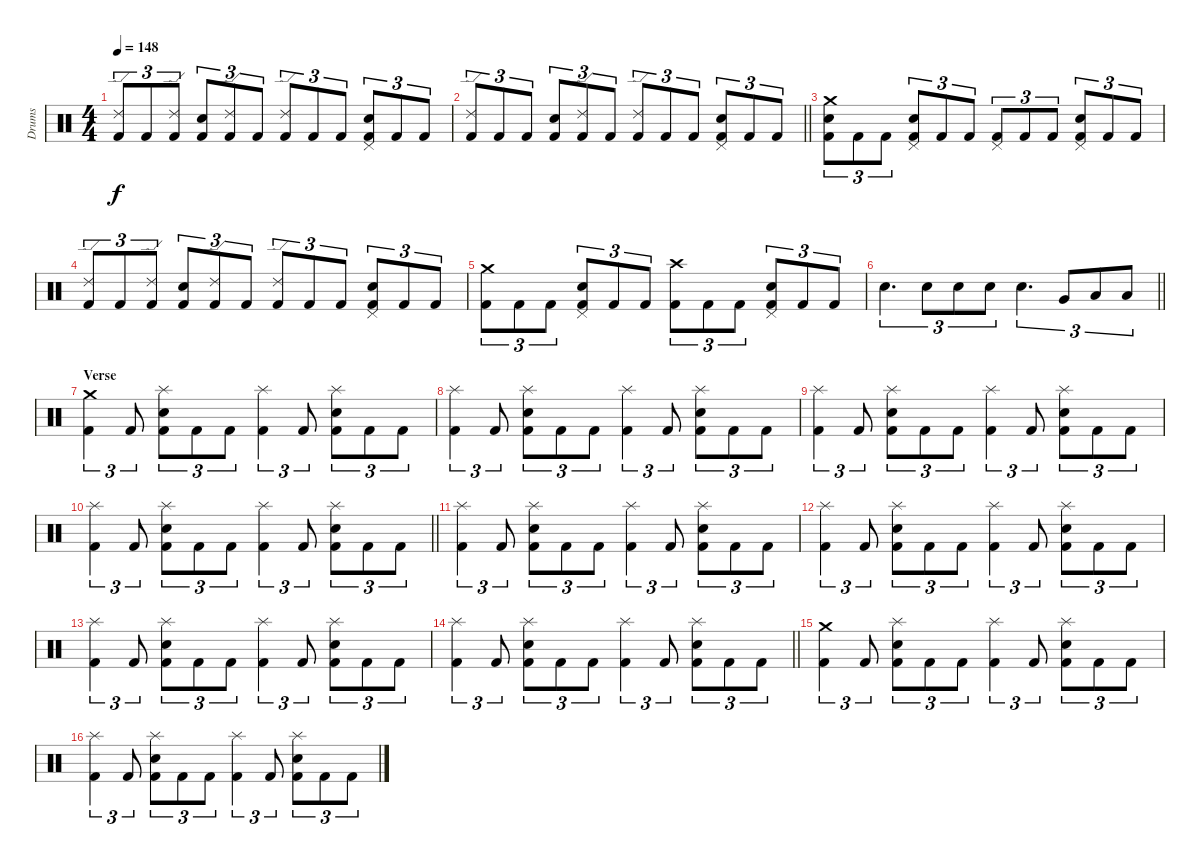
\track ("Drums" "Drums") {instrument percussion}
\staff {score}
\articulation defaults
\ts (4 4)
\tempo 148
\clef neutral
\ks c
("Kick (hit) 2" "Ride (edge) 2").8{tu (3 2) dy f} "Kick (hit) 2".8{tu (3 2)} ("Kick (hit) 2" "Ride (edge) 2").8{tu (3 2)} ("Kick (hit) 2" "Snare (hit) 2").8{tu (3 2)} ("Kick (hit) 2" "Ride (edge) 2").8{tu (3 2)} "Kick (hit) 2".8{tu (3 2)} ("Kick (hit) 2" "Ride (edge) 2").8{tu (3 2)} "Kick (hit) 2".8{tu (3 2)} "Kick (hit) 2".8{tu (3 2)} ("Kick (hit) 2" "Snare (hit) 2" "Pedal Hi-Hat (hit)").8{tu (3 2)} "Kick (hit) 2".8{tu (3 2)} "Kick (hit) 2".8{tu (3 2)} |
\barLineRight lightlight
("Kick (hit) 2" "Ride (edge) 2").8{tu (3 2)} "Kick (hit) 2".8{tu (3 2)} "Kick (hit) 2".8{tu (3 2)} ("Kick (hit) 2" "Snare (hit) 2").8{tu (3 2)} ("Kick (hit) 2" "Ride (edge) 2").8{tu (3 2)} "Kick (hit) 2".8{tu (3 2)} ("Kick (hit) 2" "Ride (edge) 2").8{tu (3 2)} "Kick (hit) 2".8{tu (3 2)} "Kick (hit) 2".8{tu (3 2)} ("Kick (hit) 2" "Snare (hit) 2" "Pedal Hi-Hat (hit)").8{tu (3 2)} "Kick (hit) 2".8{tu (3 2)} "Kick (hit) 2".8{tu (3 2)} |
\section ("" "")
("Kick (hit) 2" "Snare (hit) 2" "Crash medium (hit)").8{tu (3 2)} "Kick (hit) 2".8{tu (3 2)} "Kick (hit) 2".8{tu (3 2)} ("Kick (hit) 2" "Snare (hit) 2" "Pedal Hi-Hat (hit)").8{tu (3 2)} "Kick (hit) 2".8{tu (3 2)} "Kick (hit) 2".8{tu (3 2)} ("Kick (hit) 2" "Pedal Hi-Hat (hit)").8{tu (3 2)} "Kick (hit) 2".8{tu (3 2)} "Kick (hit) 2".8{tu (3 2)} ("Kick (hit) 2" "Snare (hit) 2" "Pedal Hi-Hat (hit)").8{tu (3 2)} "Kick (hit) 2".8{tu (3 2)} "Kick (hit) 2".8{tu (3 2)} |
("Kick (hit) 2" "Ride (edge) 2").8{tu (3 2)} "Kick (hit) 2".8{tu (3 2)} ("Kick (hit) 2" "Ride (edge) 2").8{tu (3 2)} ("Kick (hit) 2" "Snare (hit) 2").8{tu (3 2)} ("Kick (hit) 2" "Ride (edge) 2").8{tu (3 2)} "Kick (hit) 2".8{tu (3 2)} ("Kick (hit) 2" "Ride (edge) 2").8{tu (3 2)} "Kick (hit) 2".8{tu (3 2)} "Kick (hit) 2".8{tu (3 2)} ("Kick (hit) 2" "Snare (hit) 2" "Pedal Hi-Hat (hit)").8{tu (3 2)} "Kick (hit) 2".8{tu (3 2)} "Kick (hit) 2".8{tu (3 2)} |
("Kick (hit) 2" "Crash medium (hit)").8{tu (3 2)} "Kick (hit) 2".8{tu (3 2)} "Kick (hit) 2".8{tu (3 2)} ("Kick (hit) 2" "Snare (hit) 2" "Pedal Hi-Hat (hit)").8{tu (3 2)} "Kick (hit) 2".8{tu (3 2)} "Kick (hit) 2".8{tu (3 2)} ("Kick (hit) 2" "Crash high (hit)").8{tu (3 2)} "Kick (hit) 2".8{tu (3 2)} "Kick (hit) 2".8{tu (3 2)} ("Kick (hit) 2" "Snare (hit) 2" "Pedal Hi-Hat (hit)").8{tu (3 2)} "Kick (hit) 2".8{tu (3 2)} "Kick (hit) 2".8{tu (3 2)} |
\barLineRight lightlight "Snare (hit) 2".4{d tu (3 2)} "Snare (hit) 2".8{tu (3 2)} "Snare (hit) 2".8{tu (3 2)} "Snare (hit) 2".8{tu (3 2)} "Snare (hit) 2".4{d tu (3 2)} "Very Low Tom (hit)".8{tu (3 2)} "Low Floor Tom (hit)".8{tu (3 2)} "Low Floor Tom (hit)".8{tu (3 2)}
|
\section ("" "Verse")
("Kick (hit) 2" "Crash medium (hit)").4{tu (3 2)} "Kick (hit) 2".8{tu (3 2)} ("Kick (hit) 2" "Snare (hit) 2" "Splash (hit)").8{tu (3 2)} "Kick (hit) 2".8{tu (3 2)} "Kick (hit) 2".8{tu (3 2)} ("Kick (hit) 2" "Splash (hit)").4{tu (3 2)} "Kick (hit) 2".8{tu (3 2)} ("Kick (hit) 2" "Snare (hit) 2" "Splash (hit)").8{tu (3 2)} "Kick (hit) 2".8{tu (3 2)} "Kick (hit) 2".8{tu (3 2)} |
("Kick (hit) 2" "Splash (hit)").4{tu (3 2)} "Kick (hit) 2".8{tu (3 2)} ("Kick (hit) 2" "Snare (hit) 2" "Splash (hit)").8{tu (3 2)} "Kick (hit) 2".8{tu (3 2)} "Kick (hit) 2".8{tu (3 2)} ("Kick (hit) 2" "Splash (hit)").4{tu (3 2)} "Kick (hit) 2".8{tu (3 2)} ("Kick (hit) 2" "Snare (hit) 2" "Splash (hit)").8{tu (3 2)} "Kick (hit) 2".8{tu (3 2)} "Kick (hit) 2".8{tu (3 2)} |
("Kick (hit) 2" "Splash (hit)").4{tu (3 2)} "Kick (hit) 2".8{tu (3 2)} ("Kick (hit) 2" "Snare (hit) 2" "Splash (hit)").8{tu (3 2)} "Kick (hit) 2".8{tu (3 2)} "Kick (hit) 2".8{tu (3 2)} ("Kick (hit) 2" "Splash (hit)").4{tu (3 2)} "Kick (hit) 2".8{tu (3 2)} ("Kick (hit) 2" "Snare (hit) 2" "Splash (hit)").8{tu (3 2)} "Kick (hit) 2".8{tu (3 2)} "Kick (hit) 2".8{tu (3 2)} |
\barLineRight lightlight
("Kick (hit) 2" "Splash (hit)").4{tu (3 2)} "Kick (hit) 2".8{tu (3 2)} ("Kick (hit) 2" "Snare (hit) 2" "Splash (hit)").8{tu (3 2)} "Kick (hit) 2".8{tu (3 2)} "Kick (hit) 2".8{tu (3 2)} ("Kick (hit) 2" "Splash (hit)").4{tu (3 2)} "Kick (hit) 2".8{tu (3 2)} ("Kick (hit) 2" "Snare (hit) 2" "Splash (hit)").8{tu (3 2)} "Kick (hit) 2".8{tu (3 2)} "Kick (hit) 2".8{tu (3 2)} |
\section ("" "")
("Kick (hit) 2" "Splash (hit)").4{tu (3 2)} "Kick (hit) 2".8{tu (3 2)} ("Kick (hit) 2" "Snare (hit) 2" "Splash (hit)").8{tu (3 2)} "Kick (hit) 2".8{tu (3 2)} "Kick (hit) 2".8{tu (3 2)} ("Kick (hit) 2" "Splash (hit)").4{tu (3 2)} "Kick (hit) 2".8{tu (3 2)} ("Kick (hit) 2" "Snare (hit) 2" "Splash (hit)").8{tu (3 2)} "Kick (hit) 2".8{tu (3 2)} "Kick (hit) 2".8{tu (3 2)} |
("Kick (hit) 2" "Splash (hit)").4{tu (3 2)} "Kick (hit) 2".8{tu (3 2)} ("Kick (hit) 2" "Snare (hit) 2" "Splash (hit)").8{tu (3 2)} "Kick (hit) 2".8{tu (3 2)} "Kick (hit) 2".8{tu (3 2)} ("Kick (hit) 2" "Splash (hit)").4{tu (3 2)} "Kick (hit) 2".8{tu (3 2)} ("Kick (hit) 2" "Snare (hit) 2" "Splash (hit)").8{tu (3 2)} "Kick (hit) 2".8{tu (3 2)} "Kick (hit) 2".8{tu (3 2)} |
("Kick (hit) 2" "Splash (hit)").4{tu (3 2)} "Kick (hit) 2".8{tu (3 2)} ("Kick (hit) 2" "Snare (hit) 2" "Splash (hit)").8{tu (3 2)} "Kick (hit) 2".8{tu (3 2)} "Kick (hit) 2".8{tu (3 2)} ("Kick (hit) 2" "Splash (hit)").4{tu (3 2)} "Kick (hit) 2".8{tu (3 2)} ("Kick (hit) 2" "Snare (hit) 2" "Splash (hit)").8{tu (3 2)} "Kick (hit) 2".8{tu (3 2)} "Kick (hit) 2".8{tu (3 2)} |
\barLineRight lightlight
("Kick (hit) 2" "Splash (hit)").4{tu (3 2)} "Kick (hit) 2".8{tu (3 2)} ("Kick (hit) 2" "Snare (hit) 2" "Splash (hit)").8{tu (3 2)} "Kick (hit) 2".8{tu (3 2)} "Kick (hit) 2".8{tu (3 2)} ("Kick (hit) 2" "Splash (hit)").4{tu (3 2)} "Kick (hit) 2".8{tu (3 2)} ("Kick (hit) 2" "Snare (hit) 2" "Splash (hit)").8{tu (3 2)} "Kick (hit) 2".8{tu (3 2)} "Kick (hit) 2".8{tu (3 2)} |
\section ("" "")
("Kick (hit) 2" "Crash medium (hit)").4{tu (3 2)} "Kick (hit) 2".8{tu (3 2)} ("Kick (hit) 2" "Snare (hit) 2" "Splash (hit)").8{tu (3 2)} "Kick (hit) 2".8{tu (3 2)} "Kick (hit) 2".8{tu (3 2)} ("Kick (hit) 2" "Splash (hit)").4{tu (3 2)} "Kick (hit) 2".8{tu (3 2)} ("Kick (hit) 2" "Snare (hit) 2" "Splash (hit)").8{tu (3 2)} "Kick (hit) 2".8{tu (3 2)} "Kick (hit) 2".8{tu (3 2)} |
("Kick (hit) 2" "Splash (hit)").4{tu (3 2)} "Kick (hit) 2".8{tu (3 2)} ("Kick (hit) 2" "Snare (hit) 2" "Splash (hit)").8{tu (3 2)} "Kick (hit) 2".8{tu (3 2)} "Kick (hit) 2".8{tu (3 2)} ("Kick (hit) 2" "Splash (hit)").4{tu (3 2)} "Kick (hit) 2".8{tu (3 2)} ("Kick (hit) 2" "Snare (hit) 2" "Splash (hit)").8{tu (3 2)} "Kick (hit) 2".8{tu (3 2)} "Kick (hit) 2".8{tu (3 2)}
